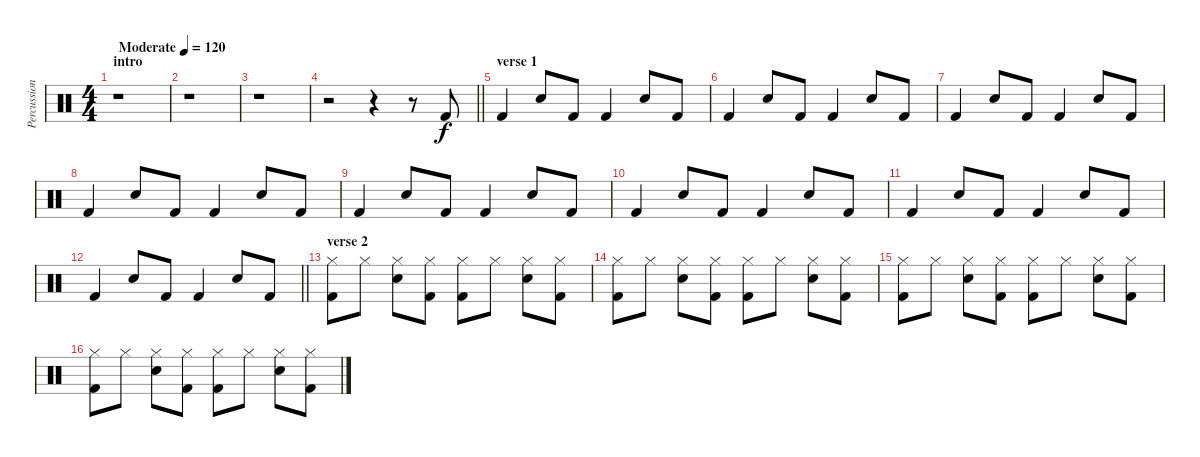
\track ("Percussion" "Percussion") {instrument percussion}
\staff {score}
\articulation defaults
\ts (4 4)
\section ("" "intro")
\tempo (120 "Moderate")
\clef neutral
\ks c
r.1{dy f} |
r.1 |
r.1 |
\barLineRight lightlight
r.2 r.4 r.8 "Kick (hit) 2".8 |
\section ("" "verse 1")
"Kick (hit) 2".4 "Snare (hit) 2".8 "Kick (hit) 2".8 "Kick (hit) 2".4 "Snare (hit) 2".8 "Kick (hit) 2".8 |
"Kick (hit) 2".4 "Snare (hit) 2".8 "Kick (hit) 2".8 "Kick (hit) 2".4 "Snare (hit) 2".8 "Kick (hit) 2".8 |
"Kick (hit) 2".4 "Snare (hit) 2".8 "Kick (hit) 2".8 "Kick (hit) 2".4 "Snare (hit) 2".8 "Kick (hit) 2".8 |
"Kick (hit) 2".4 "Snare (hit) 2".8 "Kick (hit) 2".8 "Kick (hit) 2".4 "Snare (hit) 2".8 "Kick (hit) 2".8 |
"Kick (hit) 2".4 "Snare (hit) 2".8 "Kick (hit) 2".8 "Kick (hit) 2".4 "Snare (hit) 2".8 "Kick (hit) 2".8 |
"Kick (hit) 2".4 "Snare (hit) 2".8 "Kick (hit) 2".8 "Kick (hit) 2".4 "Snare (hit) 2".8 "Kick (hit) 2".8 |
"Kick (hit) 2".4 "Snare (hit) 2".8 "Kick (hit) 2".8 "Kick (hit) 2".4 "Snare (hit) 2".8 "Kick (hit) 2".8 |
\barLineRight lightlight "Kick (hit) 2".4 "Snare (hit) 2".8 "Kick (hit) 2".8 "Kick (hit) 2".4 "Snare (hit) 2".8 "Kick (hit) 2".8
|
\section ("" "verse 2")
("Kick (hit) 2" "Hi-Hat (closed)").8 "Hi-Hat (closed)".8 ("Snare (hit) 2" "Hi-Hat (closed)").8 ("Kick (hit) 2" "Hi-Hat (closed)").8 ("Kick (hit) 2" "Hi-Hat (closed)").8 "Hi-Hat (closed)".8 ("Snare (hit) 2" "Hi-Hat (closed)").8 ("Kick (hit) 2" "Hi-Hat (closed)").8 |
("Kick (hit) 2" "Hi-Hat (closed)").8 "Hi-Hat (closed)".8 ("Snare (hit) 2" "Hi-Hat (closed)").8 ("Kick (hit) 2" "Hi-Hat (closed)").8 ("Kick (hit) 2" "Hi-Hat (closed)").8 "Hi-Hat (closed)".8 ("Snare (hit) 2" "Hi-Hat (closed)").8 ("Kick (hit) 2" "Hi-Hat (closed)").8 |
("Kick (hit) 2" "Hi-Hat (closed)").8 "Hi-Hat (closed)".8 ("Snare (hit) 2" "Hi-Hat (closed)").8 ("Kick (hit) 2" "Hi-Hat (closed)").8 ("Kick (hit) 2" "Hi-Hat (closed)").8 "Hi-Hat (closed)".8 ("Snare (hit) 2" "Hi-Hat (closed)").8 ("Kick (hit) 2" "Hi-Hat (closed)").8 |
("Kick (hit) 2" "Hi-Hat (closed)").8 "Hi-Hat (closed)".8 ("Snare (hit) 2" "Hi-Hat (closed)").8 ("Kick (hit) 2" "Hi-Hat (closed)").8 ("Kick (hit) 2" "Hi-Hat (closed)").8 "Hi-Hat (closed)".8 ("Snare (hit) 2" "Hi-Hat (closed)").8 ("Kick (hit) 2" "Hi-Hat (closed)").8
